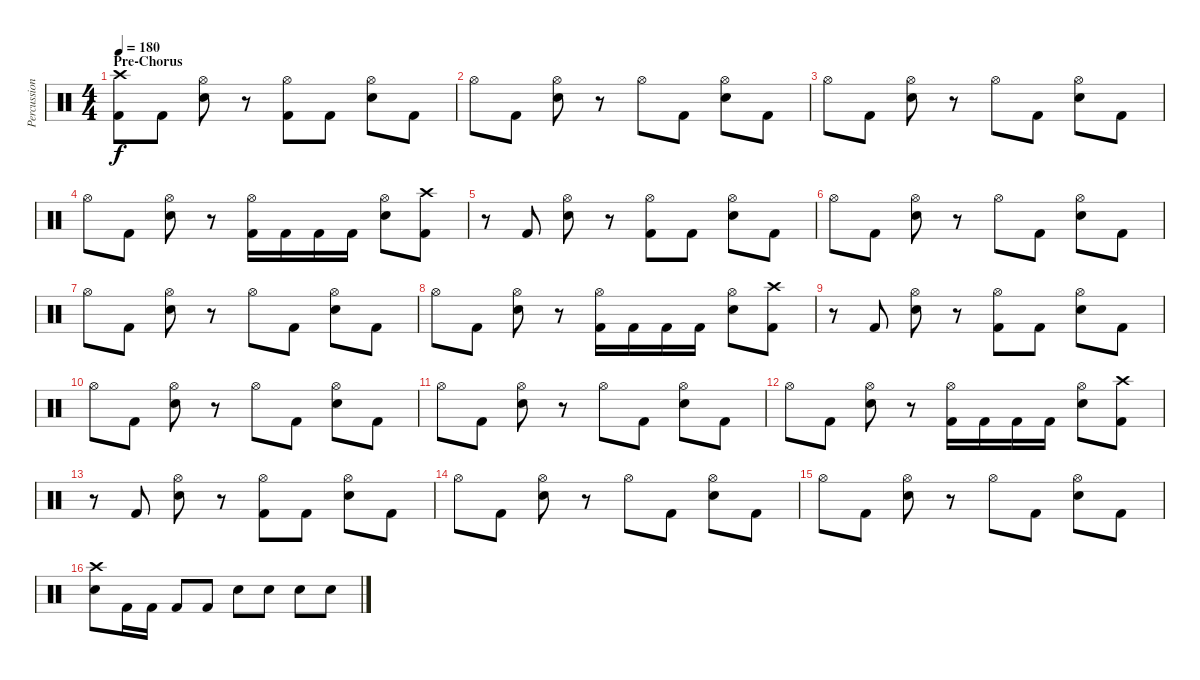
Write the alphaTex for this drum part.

\track ("Percussion" "Percussion") {instrument percussion}
\staff {score}
\articulation defaults
\ts (4 4)
\section ("" "Pre-Chorus")
\tempo 180
\clef neutral
\ks c
("Crash high (hit)" "Kick (hit) 2").8{dy f} "Kick (hit) 2".8 ("Hi-Hat (open)" "Electric Snare (hit)").8 r.8 ("Hi-Hat (open)" "Kick (hit) 2").8 "Kick (hit) 2".8 ("Hi-Hat (open)" "Electric Snare (hit)").8 "Kick (hit) 2".8 |
"Hi-Hat (open)".8 "Kick (hit) 2".8 ("Hi-Hat (open)" "Electric Snare (hit)").8 r.8 "Hi-Hat (open)".8 "Kick (hit) 2".8 ("Hi-Hat (open)" "Electric Snare (hit)").8 "Kick (hit) 2".8 |
"Hi-Hat (open)".8 "Kick (hit) 2".8 ("Hi-Hat (open)" "Electric Snare (hit)").8 r.8 "Hi-Hat (open)".8 "Kick (hit) 2".8 ("Hi-Hat (open)" "Electric Snare (hit)").8 "Kick (hit) 2".8 |
"Hi-Hat (open)".8 "Kick (hit) 2".8 ("Hi-Hat (open)" "Electric Snare (hit)").8 r.8 ("Hi-Hat (open)" "Kick (hit) 2").16 "Kick (hit) 2".16 "Kick (hit) 2".16 "Kick (hit) 2".16 ("Hi-Hat (open)" "Electric Snare (hit)").8 ("Crash high (hit)" "Kick (hit) 2").8 |
r.8 "Kick (hit) 2".8 ("Hi-Hat (open)" "Electric Snare (hit)").8 r.8 ("Hi-Hat (open)" "Kick (hit) 2").8 "Kick (hit) 2".8 ("Hi-Hat (open)" "Electric Snare (hit)").8 "Kick (hit) 2".8 |
"Hi-Hat (open)".8 "Kick (hit) 2".8 ("Hi-Hat (open)" "Electric Snare (hit)").8 r.8 "Hi-Hat (open)".8 "Kick (hit) 2".8 ("Hi-Hat (open)" "Electric Snare (hit)").8 "Kick (hit) 2".8 |
"Hi-Hat (open)".8 "Kick (hit) 2".8 ("Hi-Hat (open)" "Electric Snare (hit)").8 r.8 "Hi-Hat (open)".8 "Kick (hit) 2".8 ("Hi-Hat (open)" "Electric Snare (hit)").8 "Kick (hit) 2".8 |
"Hi-Hat (open)".8 "Kick (hit) 2".8 ("Hi-Hat (open)" "Electric Snare (hit)").8 r.8 ("Hi-Hat (open)" "Kick (hit) 2").16 "Kick (hit) 2".16 "Kick (hit) 2".16 "Kick (hit) 2".16 ("Hi-Hat (open)" "Electric Snare (hit)").8 ("Crash high (hit)" "Kick (hit) 2").8 |
r.8 "Kick (hit) 2".8 ("Hi-Hat (open)" "Electric Snare (hit)").8 r.8 ("Hi-Hat (open)" "Kick (hit) 2").8 "Kick (hit) 2".8 ("Hi-Hat (open)" "Electric Snare (hit)").8 "Kick (hit) 2".8 |
"Hi-Hat (open)".8 "Kick (hit) 2".8 ("Hi-Hat (open)" "Electric Snare (hit)").8 r.8 "Hi-Hat (open)".8 "Kick (hit) 2".8 ("Hi-Hat (open)" "Electric Snare (hit)").8 "Kick (hit) 2".8 |
"Hi-Hat (open)".8 "Kick (hit) 2".8 ("Hi-Hat (open)" "Electric Snare (hit)").8 r.8 "Hi-Hat (open)".8 "Kick (hit) 2".8 ("Hi-Hat (open)" "Electric Snare (hit)").8 "Kick (hit) 2".8 |
"Hi-Hat (open)".8 "Kick (hit) 2".8 ("Hi-Hat (open)" "Electric Snare (hit)").8 r.8 ("Hi-Hat (open)" "Kick (hit) 2").16 "Kick (hit) 2".16 "Kick (hit) 2".16 "Kick (hit) 2".16 ("Hi-Hat (open)" "Electric Snare (hit)").8 ("Crash high (hit)" "Kick (hit) 2").8 |
r.8 "Kick (hit) 2".8 ("Hi-Hat (open)" "Electric Snare (hit)").8 r.8 ("Hi-Hat (open)" "Kick (hit) 2").8 "Kick (hit) 2".8 ("Hi-Hat (open)" "Electric Snare (hit)").8 "Kick (hit) 2".8 |
"Hi-Hat (open)".8 "Kick (hit) 2".8 ("Hi-Hat (open)" "Electric Snare (hit)").8 r.8 "Hi-Hat (open)".8 "Kick (hit) 2".8 ("Hi-Hat (open)" "Electric Snare (hit)").8 "Kick (hit) 2".8 |
"Hi-Hat (open)".8 "Kick (hit) 2".8 ("Hi-Hat (open)" "Electric Snare (hit)").8 r.8 "Hi-Hat (open)".8 "Kick (hit) 2".8 ("Hi-Hat (open)" "Electric Snare (hit)").8 "Kick (hit) 2".8 |
("Crash high (hit)" "Electric Snare (hit)").8 "Kick (hit) 2".16 "Kick (hit) 2".16 "Kick (hit) 2".8 "Kick (hit) 2".8 "Electric Snare (hit)".8 "Electric Snare (hit)".8 "Electric Snare (hit)".8 "Electric Snare (hit)".8
